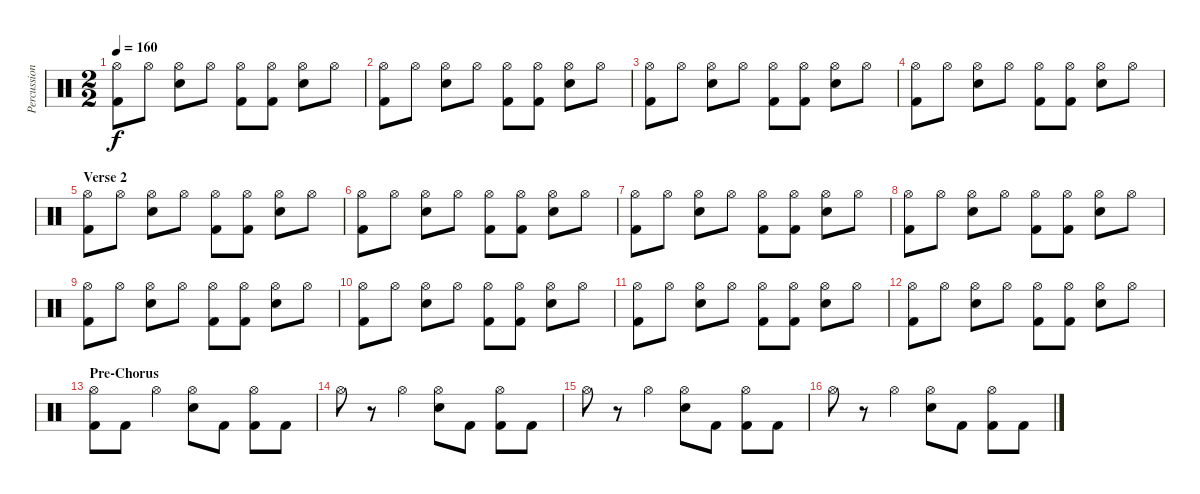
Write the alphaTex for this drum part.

\track ("Percussion" "Percussion") {instrument percussion}
\staff {score}
\articulation defaults
\ts (2 2)
\tempo 160
\clef neutral
\ks c
("Hi-Hat (open)" "Kick (hit) 2").8{dy f} "Hi-Hat (open)".8 ("Hi-Hat (open)" "Snare (hit) 2").8 "Hi-Hat (open)".8 ("Hi-Hat (open)" "Kick (hit) 2").8 ("Hi-Hat (open)" "Kick (hit) 2").8 ("Hi-Hat (open)" "Snare (hit) 2").8 "Hi-Hat (open)".8 |
("Hi-Hat (open)" "Kick (hit) 2").8 "Hi-Hat (open)".8 ("Hi-Hat (open)" "Snare (hit) 2").8 "Hi-Hat (open)".8 ("Hi-Hat (open)" "Kick (hit) 2").8 ("Hi-Hat (open)" "Kick (hit) 2").8 ("Hi-Hat (open)" "Snare (hit) 2").8 "Hi-Hat (open)".8 |
("Hi-Hat (open)" "Kick (hit) 2").8 "Hi-Hat (open)".8 ("Hi-Hat (open)" "Snare (hit) 2").8 "Hi-Hat (open)".8 ("Hi-Hat (open)" "Kick (hit) 2").8 ("Hi-Hat (open)" "Kick (hit) 2").8 ("Hi-Hat (open)" "Snare (hit) 2").8 "Hi-Hat (open)".8 |
("Hi-Hat (open)" "Kick (hit) 2").8 "Hi-Hat (open)".8 ("Hi-Hat (open)" "Snare (hit) 2").8 "Hi-Hat (open)".8 ("Hi-Hat (open)" "Kick (hit) 2").8 ("Hi-Hat (open)" "Kick (hit) 2").8 ("Hi-Hat (open)" "Snare (hit) 2").8 "Hi-Hat (open)".8 |
\section ("" "Verse 2")
("Hi-Hat (open)" "Kick (hit) 2").8 "Hi-Hat (open)".8 ("Hi-Hat (open)" "Snare (hit) 2").8 "Hi-Hat (open)".8 ("Hi-Hat (open)" "Kick (hit) 2").8 ("Hi-Hat (open)" "Kick (hit) 2").8 ("Hi-Hat (open)" "Snare (hit) 2").8 "Hi-Hat (open)".8 |
("Hi-Hat (open)" "Kick (hit) 2").8 "Hi-Hat (open)".8 ("Hi-Hat (open)" "Snare (hit) 2").8 "Hi-Hat (open)".8 ("Hi-Hat (open)" "Kick (hit) 2").8 ("Hi-Hat (open)" "Kick (hit) 2").8 ("Hi-Hat (open)" "Snare (hit) 2").8 "Hi-Hat (open)".8 |
("Hi-Hat (open)" "Kick (hit) 2").8 "Hi-Hat (open)".8 ("Hi-Hat (open)" "Snare (hit) 2").8 "Hi-Hat (open)".8 ("Hi-Hat (open)" "Kick (hit) 2").8 ("Hi-Hat (open)" "Kick (hit) 2").8 ("Hi-Hat (open)" "Snare (hit) 2").8 "Hi-Hat (open)".8 |
("Hi-Hat (open)" "Kick (hit) 2").8 "Hi-Hat (open)".8 ("Hi-Hat (open)" "Snare (hit) 2").8 "Hi-Hat (open)".8 ("Hi-Hat (open)" "Kick (hit) 2").8 ("Hi-Hat (open)" "Kick (hit) 2").8 ("Hi-Hat (open)" "Snare (hit) 2").8 "Hi-Hat (open)".8 |
("Hi-Hat (open)" "Kick (hit) 2").8 "Hi-Hat (open)".8 ("Hi-Hat (open)" "Snare (hit) 2").8 "Hi-Hat (open)".8 ("Hi-Hat (open)" "Kick (hit) 2").8 ("Hi-Hat (open)" "Kick (hit) 2").8 ("Hi-Hat (open)" "Snare (hit) 2").8 "Hi-Hat (open)".8 |
("Hi-Hat (open)" "Kick (hit) 2").8 "Hi-Hat (open)".8 ("Hi-Hat (open)" "Snare (hit) 2").8 "Hi-Hat (open)".8 ("Hi-Hat (open)" "Kick (hit) 2").8 ("Hi-Hat (open)" "Kick (hit) 2").8 ("Hi-Hat (open)" "Snare (hit) 2").8 "Hi-Hat (open)".8 |
("Hi-Hat (open)" "Kick (hit) 2").8 "Hi-Hat (open)".8 ("Hi-Hat (open)" "Snare (hit) 2").8 "Hi-Hat (open)".8 ("Hi-Hat (open)" "Kick (hit) 2").8 ("Hi-Hat (open)" "Kick (hit) 2").8 ("Hi-Hat (open)" "Snare (hit) 2").8 "Hi-Hat (open)".8 |
("Hi-Hat (open)" "Kick (hit) 2").8 "Hi-Hat (open)".8 ("Hi-Hat (open)" "Snare (hit) 2").8 "Hi-Hat (open)".8 ("Hi-Hat (open)" "Kick (hit) 2").8 ("Hi-Hat (open)" "Kick (hit) 2").8 ("Hi-Hat (open)" "Snare (hit) 2").8 "Hi-Hat (open)".8 |
\section ("" "Pre-Chorus")
("Hi-Hat (open)" "Kick (hit) 2").8 "Kick (hit) 2".8 "Hi-Hat (open)".4 ("Hi-Hat (open)" "Snare (hit) 2").8 "Kick (hit) 2".8 ("Hi-Hat (open)" "Kick (hit) 2").8 "Kick (hit) 2".8 |
"Hi-Hat (open)".8 r.8 "Hi-Hat (open)".4 ("Hi-Hat (open)" "Snare (hit) 2").8 "Kick (hit) 2".8 ("Hi-Hat (open)" "Kick (hit) 2").8 "Kick (hit) 2".8 |
"Hi-Hat (open)".8 r.8 "Hi-Hat (open)".4 ("Hi-Hat (open)" "Snare (hit) 2").8 "Kick (hit) 2".8 ("Hi-Hat (open)" "Kick (hit) 2").8 "Kick (hit) 2".8 |
"Hi-Hat (open)".8 r.8 "Hi-Hat (open)".4 ("Hi-Hat (open)" "Snare (hit) 2").8 "Kick (hit) 2".8 ("Hi-Hat (open)" "Kick (hit) 2").8 "Kick (hit) 2".8
